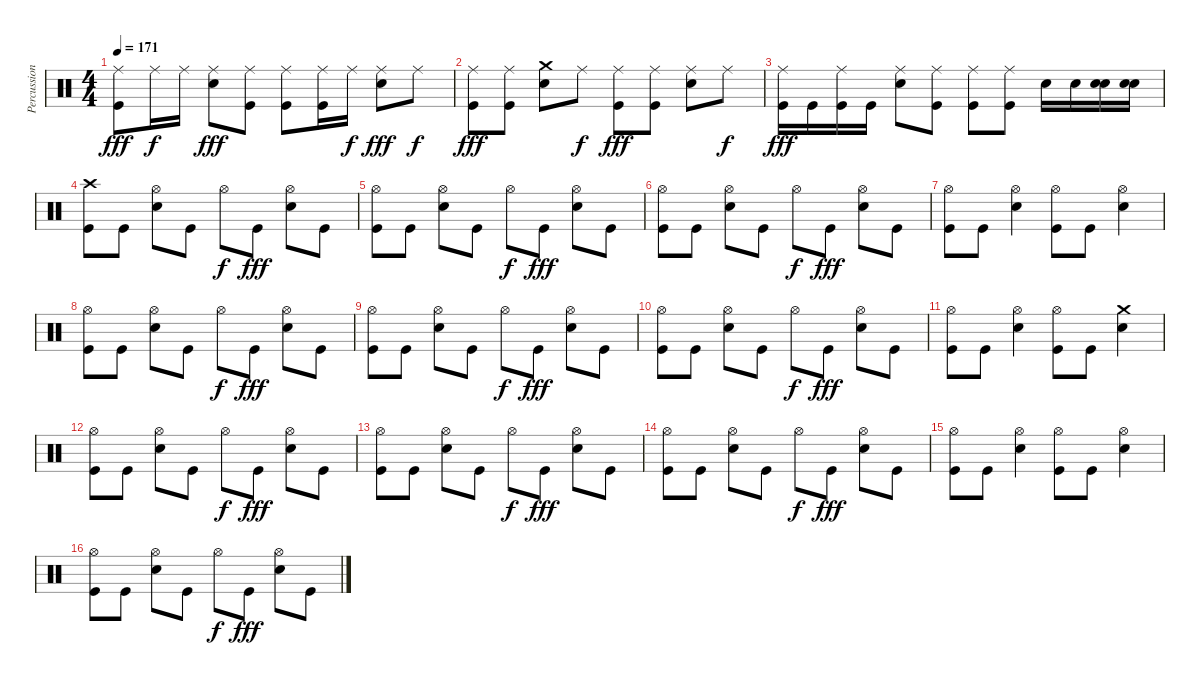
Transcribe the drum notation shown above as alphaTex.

\track ("Percussion" "Percussion") {instrument percussion}
\staff {score}
\articulation defaults
\ts (4 4)
\tempo 171
\clef neutral
\ks c
("Ride (middle)" "Kick (hit)").8{dy fff} "Ride (middle)".16{dy f} "Ride (middle)".16 ("Ride (middle)" "Snare (hit) 2").8{dy fff} ("Ride (middle)" "Kick (hit)").8 ("Ride (middle)" "Kick (hit)").8 ("Ride (middle)" "Kick (hit)").16 "Ride (middle)".16{dy f} ("Ride (middle)" "Snare (hit) 2").8{dy fff} "Ride (middle)".8{dy f} |
("Ride (middle)" "Kick (hit)").8{dy fff} ("Ride (middle)" "Kick (hit)").8 ("Crash medium (hit)" "Snare (hit) 2").8 "Ride (middle)".8{dy f} ("Ride (middle)" "Kick (hit)").8{dy fff} ("Ride (middle)" "Kick (hit)").8 ("Ride (middle)" "Snare (hit) 2").8 "Ride (middle)".8{dy f} |
("Ride (middle)" "Kick (hit)").16{dy fff} "Kick (hit)".16 ("Ride (middle)" "Kick (hit)").16 "Kick (hit)".16 ("Ride (middle)" "Snare (hit) 2").8 ("Ride (middle)" "Kick (hit)").8 ("Ride (middle)" "Kick (hit)").8 ("Ride (middle)" "Kick (hit)").8 "Snare (hit) 2".16 "Snare (hit) 2".16 ("Electric Snare (hit)" "Snare (hit) 2").16 ("Electric Snare (hit)" "Snare (hit) 2").16 |
("Crash high (hit)" "Kick (hit)").8 "Kick (hit)".8 ("Hi-Hat (open)" "Snare (hit) 2").8 "Kick (hit)".8 "Hi-Hat (open)".8{dy f} "Kick (hit)".8{dy fff} ("Hi-Hat (open)" "Snare (hit) 2").8 "Kick (hit)".8 |
("Hi-Hat (open)" "Kick (hit)").8 "Kick (hit)".8 ("Hi-Hat (open)" "Snare (hit) 2").8 "Kick (hit)".8 "Hi-Hat (open)".8{dy f} "Kick (hit)".8{dy fff} ("Hi-Hat (open)" "Snare (hit) 2").8 "Kick (hit)".8 |
("Hi-Hat (open)" "Kick (hit)").8 "Kick (hit)".8 ("Hi-Hat (open)" "Snare (hit) 2").8 "Kick (hit)".8 "Hi-Hat (open)".8{dy f} "Kick (hit)".8{dy fff} ("Hi-Hat (open)" "Snare (hit) 2").8 "Kick (hit)".8 |
("Hi-Hat (open)" "Kick (hit)").8 "Kick (hit)".8 ("Hi-Hat (open)" "Snare (hit) 2").4 ("Hi-Hat (open)" "Kick (hit)").8 "Kick (hit)".8 ("Hi-Hat (open)" "Snare (hit) 2").4 |
("Hi-Hat (open)" "Kick (hit)").8 "Kick (hit)".8 ("Hi-Hat (open)" "Snare (hit) 2").8 "Kick (hit)".8 "Hi-Hat (open)".8{dy f} "Kick (hit)".8{dy fff} ("Hi-Hat (open)" "Snare (hit) 2").8 "Kick (hit)".8 |
("Hi-Hat (open)" "Kick (hit)").8 "Kick (hit)".8 ("Hi-Hat (open)" "Snare (hit) 2").8 "Kick (hit)".8 "Hi-Hat (open)".8{dy f} "Kick (hit)".8{dy fff} ("Hi-Hat (open)" "Snare (hit) 2").8 "Kick (hit)".8 |
("Hi-Hat (open)" "Kick (hit)").8 "Kick (hit)".8 ("Hi-Hat (open)" "Snare (hit) 2").8 "Kick (hit)".8 "Hi-Hat (open)".8{dy f} "Kick (hit)".8{dy fff} ("Hi-Hat (open)" "Snare (hit) 2").8 "Kick (hit)".8 |
("Hi-Hat (open)" "Kick (hit)").8 "Kick (hit)".8 ("Hi-Hat (open)" "Snare (hit) 2").4 ("Hi-Hat (open)" "Kick (hit)").8 "Kick (hit)".8 ("Crash medium (hit)" "Snare (hit) 2").4 |
("Hi-Hat (open)" "Kick (hit)").8 "Kick (hit)".8 ("Hi-Hat (open)" "Snare (hit) 2").8 "Kick (hit)".8 "Hi-Hat (open)".8{dy f} "Kick (hit)".8{dy fff} ("Hi-Hat (open)" "Snare (hit) 2").8 "Kick (hit)".8 |
("Hi-Hat (open)" "Kick (hit)").8 "Kick (hit)".8 ("Hi-Hat (open)" "Snare (hit) 2").8 "Kick (hit)".8 "Hi-Hat (open)".8{dy f} "Kick (hit)".8{dy fff} ("Hi-Hat (open)" "Snare (hit) 2").8 "Kick (hit)".8 |
("Hi-Hat (open)" "Kick (hit)").8 "Kick (hit)".8 ("Hi-Hat (open)" "Snare (hit) 2").8 "Kick (hit)".8 "Hi-Hat (open)".8{dy f} "Kick (hit)".8{dy fff} ("Hi-Hat (open)" "Snare (hit) 2").8 "Kick (hit)".8 |
("Hi-Hat (open)" "Kick (hit)").8 "Kick (hit)".8 ("Hi-Hat (open)" "Snare (hit) 2").4 ("Hi-Hat (open)" "Kick (hit)").8 "Kick (hit)".8 ("Hi-Hat (open)" "Snare (hit) 2").4 |
("Hi-Hat (open)" "Kick (hit)").8 "Kick (hit)".8 ("Hi-Hat (open)" "Snare (hit) 2").8 "Kick (hit)".8 "Hi-Hat (open)".8{dy f} "Kick (hit)".8{dy fff} ("Hi-Hat (open)" "Snare (hit) 2").8 "Kick (hit)".8
